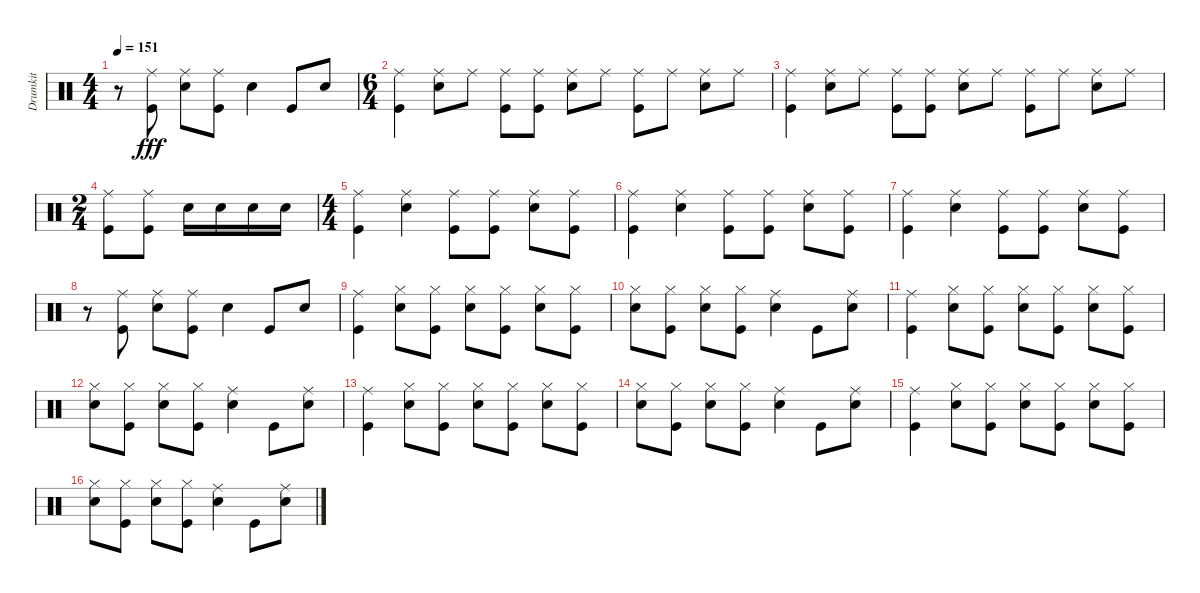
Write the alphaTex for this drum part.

\track ("Drumkit" "Drumkit") {instrument percussion}
\staff {score}
\articulation defaults
\ts (4 4)
\tempo 151
\clef neutral
\ks c
r.8{dy fff} ("Kick (hit)" "Ride (middle)").8 ("Ride (middle)" "Snare (hit) 2").8 ("Ride (middle)" "Kick (hit)").8 "Snare (hit) 2".4 "Kick (hit)".8 "Snare (hit) 2".8 |
\ts (6 4)
("Kick (hit)" "Ride (middle)").4 ("Snare (hit) 2" "Ride (middle)").8 "Ride (middle)".8 ("Kick (hit)" "Ride (middle)").8 ("Kick (hit)" "Ride (middle)").8 ("Snare (hit) 2" "Ride (middle)").8 "Ride (middle)".8 ("Kick (hit)" "Ride (middle)").8 "Ride (middle)".8 ("Snare (hit) 2" "Ride (middle)").8 "Ride (middle)".8 |
("Kick (hit)" "Ride (middle)").4 ("Snare (hit) 2" "Ride (middle)").8 "Ride (middle)".8 ("Kick (hit)" "Ride (middle)").8 ("Kick (hit)" "Ride (middle)").8 ("Snare (hit) 2" "Ride (middle)").8 "Ride (middle)".8 ("Kick (hit)" "Ride (middle)").8 "Ride (middle)".8 ("Snare (hit) 2" "Ride (middle)").8 "Ride (middle)".8 |
\ts (2 4)
("Kick (hit)" "Ride (middle)").8 ("Kick (hit)" "Ride (middle)").8 "Snare (hit) 2".16 "Snare (hit) 2".16 "Snare (hit) 2".16 "Snare (hit) 2".16 |
\ts (4 4)
("Ride (middle)" "Kick (hit)").4 ("Ride (middle)" "Snare (hit) 2").4 ("Kick (hit)" "Ride (middle)").8 ("Kick (hit)" "Ride (middle)").8 ("Snare (hit) 2" "Ride (middle)").8 ("Kick (hit)" "Ride (middle)").8 |
("Ride (middle)" "Kick (hit)").4 ("Ride (middle)" "Snare (hit) 2").4 ("Kick (hit)" "Ride (middle)").8 ("Kick (hit)" "Ride (middle)").8 ("Snare (hit) 2" "Ride (middle)").8 ("Kick (hit)" "Ride (middle)").8 |
("Ride (middle)" "Kick (hit)").4 ("Ride (middle)" "Snare (hit) 2").4 ("Kick (hit)" "Ride (middle)").8 ("Kick (hit)" "Ride (middle)").8 ("Snare (hit) 2" "Ride (middle)").8 ("Kick (hit)" "Ride (middle)").8 |
r.8 ("Kick (hit)" "Ride (middle)").8 ("Ride (middle)" "Snare (hit) 2").8 ("Ride (middle)" "Kick (hit)").8 "Snare (hit) 2".4 "Kick (hit)".8 "Snare (hit) 2".8 |
("Ride (middle)" "Kick (hit)").4 ("Hi-Hat (closed)" "Snare (hit) 2").8 ("Hi-Hat (closed)" "Kick (hit)").8 ("Snare (hit) 2" "Hi-Hat (closed)").8 ("Kick (hit)" "Hi-Hat (closed)").8 ("Snare (hit) 2" "Hi-Hat (closed)").8 ("Kick (hit)" "Hi-Hat (closed)").8 |
("Snare (hit) 2" "Hi-Hat (closed)").8 ("Kick (hit)" "Hi-Hat (closed)").8 ("Snare (hit) 2" "Hi-Hat (closed)").8 ("Kick (hit)" "Hi-Hat (closed)").8 ("Ride (middle)" "Snare (hit) 2").4 "Kick (hit)".8 ("Ride (middle)" "Snare (hit) 2").8 |
("Ride (middle)" "Kick (hit)").4 ("Hi-Hat (closed)" "Snare (hit) 2").8 ("Hi-Hat (closed)" "Kick (hit)").8 ("Snare (hit) 2" "Hi-Hat (closed)").8 ("Kick (hit)" "Hi-Hat (closed)").8 ("Snare (hit) 2" "Hi-Hat (closed)").8 ("Kick (hit)" "Hi-Hat (closed)").8 |
("Snare (hit) 2" "Hi-Hat (closed)").8 ("Kick (hit)" "Hi-Hat (closed)").8 ("Snare (hit) 2" "Hi-Hat (closed)").8 ("Kick (hit)" "Hi-Hat (closed)").8 ("Ride (middle)" "Snare (hit) 2").4 "Kick (hit)".8 ("Ride (middle)" "Snare (hit) 2").8 |
("Ride (middle)" "Kick (hit)").4 ("Hi-Hat (closed)" "Snare (hit) 2").8 ("Hi-Hat (closed)" "Kick (hit)").8 ("Snare (hit) 2" "Hi-Hat (closed)").8 ("Kick (hit)" "Hi-Hat (closed)").8 ("Snare (hit) 2" "Hi-Hat (closed)").8 ("Kick (hit)" "Hi-Hat (closed)").8 |
("Snare (hit) 2" "Hi-Hat (closed)").8 ("Kick (hit)" "Hi-Hat (closed)").8 ("Snare (hit) 2" "Hi-Hat (closed)").8 ("Kick (hit)" "Hi-Hat (closed)").8 ("Ride (middle)" "Snare (hit) 2").4 "Kick (hit)".8 ("Ride (middle)" "Snare (hit) 2").8 |
("Ride (middle)" "Kick (hit)").4 ("Hi-Hat (closed)" "Snare (hit) 2").8 ("Hi-Hat (closed)" "Kick (hit)").8 ("Snare (hit) 2" "Hi-Hat (closed)").8 ("Kick (hit)" "Hi-Hat (closed)").8 ("Snare (hit) 2" "Hi-Hat (closed)").8 ("Kick (hit)" "Hi-Hat (closed)").8 |
("Snare (hit) 2" "Hi-Hat (closed)").8 ("Kick (hit)" "Hi-Hat (closed)").8 ("Snare (hit) 2" "Hi-Hat (closed)").8 ("Kick (hit)" "Hi-Hat (closed)").8 ("Ride (middle)" "Snare (hit) 2").4 "Kick (hit)".8 ("Ride (middle)" "Snare (hit) 2").8
